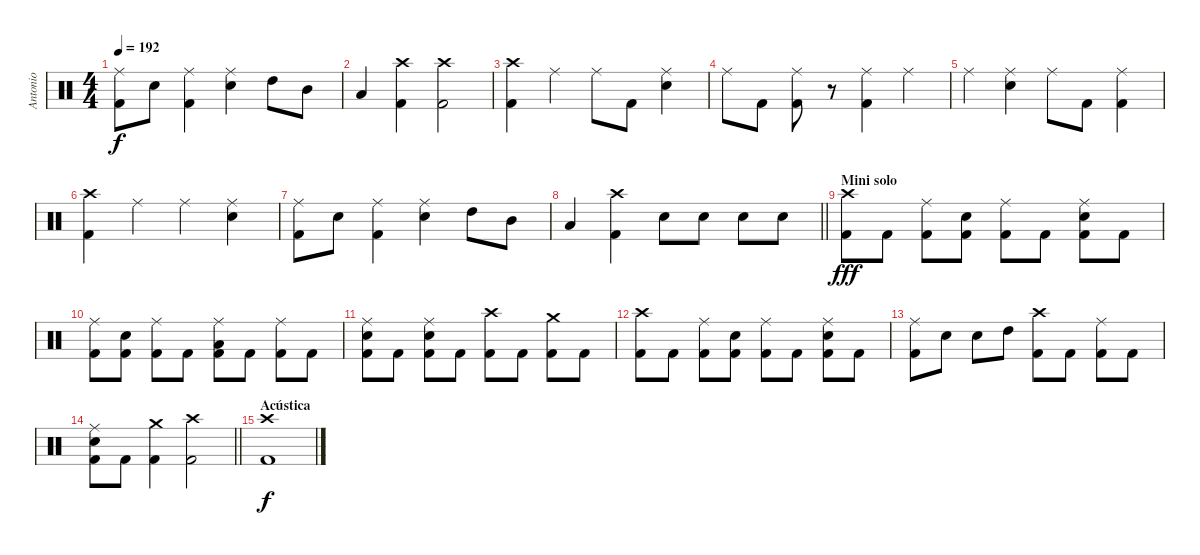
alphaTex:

\track ("Antonio" "Antonio") {instrument percussion}
\staff {score}
\articulation defaults
\ts (4 4)
\tempo 192
\clef neutral
\ks c
("Ride (middle)" "Kick (hit) 2").8{dy f} "Electric Snare (hit)".8 ("Ride (middle)" "Kick (hit) 2").4 ("Ride (middle)" "Electric Snare (hit)").4 "High Tom (hit)".8 "Mid Tom (hit)".8 |
"Low Tom (hit)".4 ("Crash high (hit)" "Kick (hit) 2").4 ("Crash high (hit)" "Kick (hit) 2").2 |
("Crash high (hit)" "Kick (hit) 2").4 "Ride (middle)".4 "Ride (middle)".8 "Kick (hit) 2".8 ("Ride (middle)" "Electric Snare (hit)").4 |
"Ride (middle)".8 "Kick (hit) 2".8 ("Ride (middle)" "Kick (hit) 2").8 r.8 ("Ride (middle)" "Kick (hit) 2").4 "Ride (middle)".4 |
"Ride (middle)".4 ("Ride (middle)" "Electric Snare (hit)").4 "Ride (middle)".8 "Kick (hit) 2".8 ("Ride (middle)" "Kick (hit) 2").4 |
("Crash high (hit)" "Kick (hit) 2").4 "Ride (middle)".4 "Ride (middle)".4 ("Ride (middle)" "Electric Snare (hit)").4 |
("Ride (middle)" "Kick (hit) 2").8 "Electric Snare (hit)".8 ("Ride (middle)" "Kick (hit) 2").4 ("Ride (middle)" "Electric Snare (hit)").4 "High Tom (hit)".8 "Mid Tom (hit)".8 |
\barLineRight lightlight "Low Tom (hit)".4
("Crash high (hit)" "Kick (hit) 2").4 "Electric Snare (hit)".8 "Electric Snare (hit)".8 "Electric Snare (hit)".8 "Electric Snare (hit)".8 |
\section ("" "Mini solo")
("Crash high (hit)" "Kick (hit) 2").8{dy fff} "Kick (hit) 2".8 ("Ride (middle)" "Kick (hit) 2").8 ("Electric Snare (hit)" "Kick (hit) 2").8 ("Ride (middle)" "Kick (hit) 2").8 "Kick (hit) 2".8 ("Ride (middle)" "Electric Snare (hit)" "Kick (hit) 2").8 "Kick (hit) 2".8 |
("Ride (middle)" "Kick (hit) 2").8 ("Electric Snare (hit)" "Kick (hit) 2").8 ("Ride (middle)" "Kick (hit) 2").8 "Kick (hit) 2".8 ("Ride (middle)" "Low Tom (hit)" "Kick (hit) 2").8 "Kick (hit) 2".8 ("Ride (middle)" "Kick (hit) 2").8 "Kick (hit) 2".8 |
("Ride (middle)" "Electric Snare (hit)" "Kick (hit) 2").8 "Kick (hit) 2".8 ("Ride (middle)" "Electric Snare (hit)" "Kick (hit) 2").8 "Kick (hit) 2".8 ("Crash high (hit)" "Kick (hit) 2").8 "Kick (hit) 2".8 ("Crash medium (hit)" "Kick (hit) 2").8 "Kick (hit) 2".8 |
("Crash high (hit)" "Kick (hit) 2").8 "Kick (hit) 2".8 ("Ride (middle)" "Kick (hit) 2").8 ("Electric Snare (hit)" "Kick (hit) 2").8 ("Ride (middle)" "Kick (hit) 2").8 "Kick (hit) 2".8 ("Ride (middle)" "Electric Snare (hit)" "Kick (hit) 2").8 "Kick (hit) 2".8 |
("Ride (middle)" "Kick (hit) 2").8 "Electric Snare (hit)".8 "Electric Snare (hit)".8 "High Tom (hit)".8 ("Crash high (hit)" "Kick (hit) 2").8 "Kick (hit) 2".8 ("Ride (middle)" "Kick (hit) 2").8 "Kick (hit) 2".8 |
\barLineRight lightlight
("Ride (middle)" "Electric Snare (hit)" "Kick (hit) 2").8 "Kick (hit) 2".8 ("Crash medium (hit)" "Kick (hit) 2").4 ("Crash high (hit)" "Kick (hit) 2").2 |
\section ("" "Acústica")
("Crash high (hit)" "Kick (hit) 2").1{dy f}
